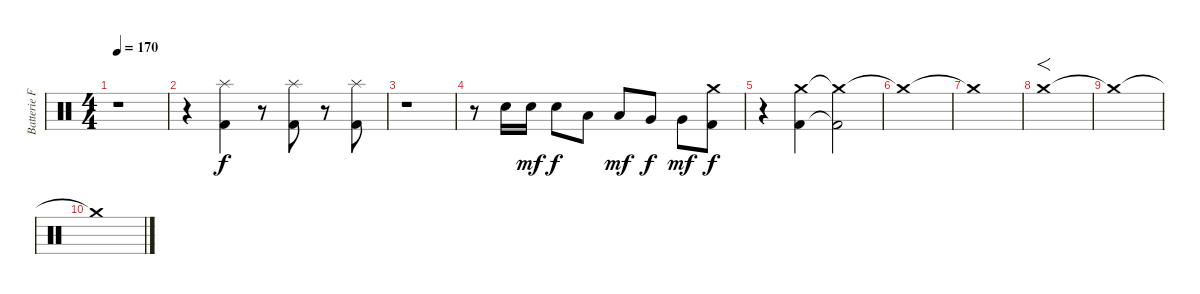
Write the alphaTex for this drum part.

\track ("Batterie Franck" "Batterie F") {instrument percussion}
\staff {score}
\articulation defaults
\ts (4 4)
\tempo 170
\clef neutral
\ks c
r.1{dy mp} |
r.4 ("Splash (hit)" "Kick (hit) 2").4{dy f} r.8 ("Splash (hit)" "Kick (hit) 2").8 r.8 ("Splash (hit)" "Kick (hit) 2").8 |
r.1 |
r.8 "Snare (hit) 2".16 "Snare (hit) 2".16{dy mf} "Snare (hit) 2".8{dy f} "Low Tom (hit)".8 "Low Tom (hit)".8{dy mf} "Very Low Tom (hit)".8{dy f} "Very Low Tom (hit)".8{dy mf} ("Crash medium (hit)" "Kick (hit) 2").8{dy f} |
r.4 ("Crash medium (hit)" "Kick (hit) 2").4 ("Crash medium (hit)"{t} "Kick (hit) 2"{t}).2 |
"Crash medium (hit)"{t}.1 |
"Crash medium (hit)"{t}.1 |
"Crash medium (hit)".1{f} |
"Crash medium (hit)"{t}.1 |
"Crash medium (hit)"{t}.1
